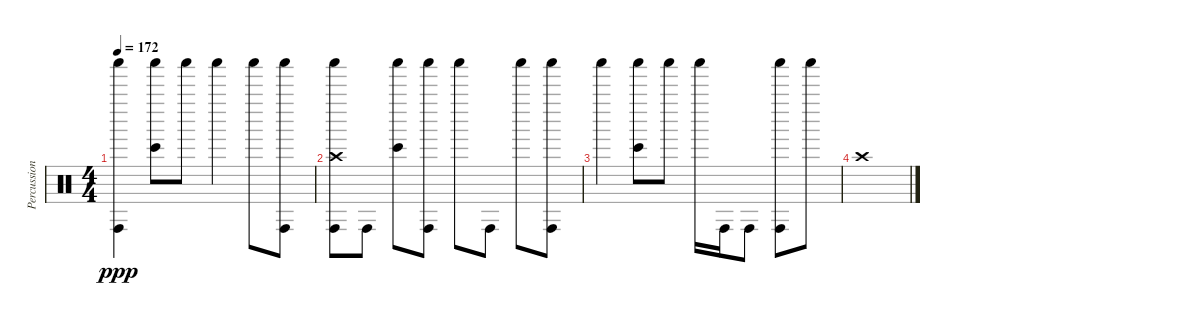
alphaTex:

\track ("Percussion" "Percussion") {instrument percussion}
\staff {score}
\articulation defaults
\ts (4 4)
\tempo 172
\clef neutral
\ks c
("Shaker (hit)" "Conga high (hit)").4{dy ppp} ("Shaker (hit)" "Bongo High (hit)").8 "Shaker (hit)".8 "Shaker (hit)".4 "Shaker (hit)".8 ("Shaker (hit)" "Conga high (hit)").8 |
("Shaker (hit)" "Crash high (hit)" "Conga high (hit)").8 "Conga high (hit)".8 ("Shaker (hit)" "Bongo High (hit)").8 ("Shaker (hit)" "Conga high (hit)").8 "Shaker (hit)".8 "Conga high (hit)".8 "Shaker (hit)".8 ("Shaker (hit)" "Conga high (hit)").8 |
"Shaker (hit)".4 ("Shaker (hit)" "Bongo High (hit)").8 "Shaker (hit)".8 "Shaker (hit)".16 "Conga high (hit)".16 "Conga high (hit)".8 ("Shaker (hit)" "Conga high (hit)").8 "Shaker (hit)".8 |
"Crash high (hit)".1
